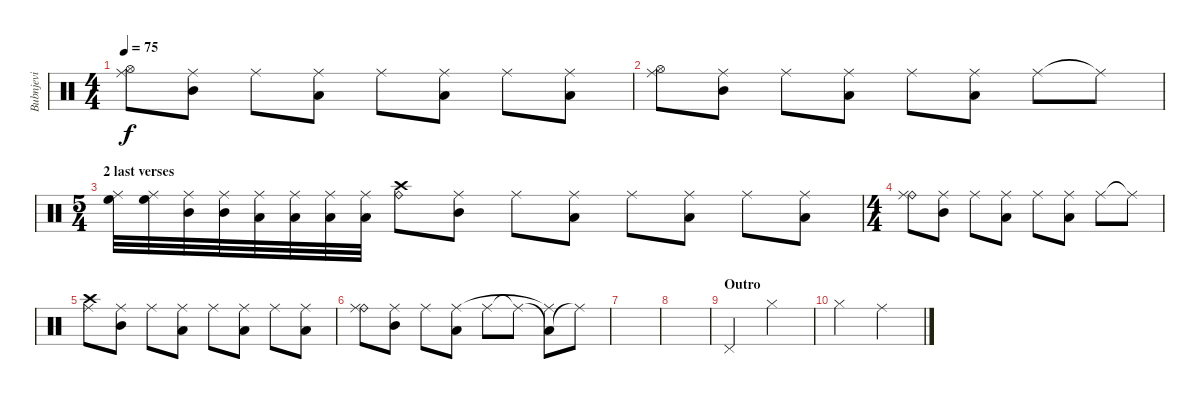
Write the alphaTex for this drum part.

\track ("Bubnjevi" "Bubnjevi") {instrument percussion}
\staff {score}
\articulation defaults
\ts (4 4)
\tempo 75
\clef neutral
\ks c
("Hi-Hat (open)" "Ride (middle)").8{dy f} ("Mid Tom (hit)" "Ride (middle)").8 "Ride (middle)".8 ("Low Tom (hit)" "Ride (middle)").8 "Ride (middle)".8 ("Low Tom (hit)" "Ride (middle)").8 "Ride (middle)".8 ("Low Tom (hit)" "Ride (middle)").8 |
("Hi-Hat (open)" "Ride (middle)").8 ("Mid Tom (hit)" "Ride (middle)").8 "Ride (middle)".8 ("Low Tom (hit)" "Ride (middle)").8 "Ride (middle)".8 ("Low Tom (hit)" "Ride (middle)").8 "Ride (middle)".8 "Ride (middle)"{t}.8 |
\ts (5 4)
\section ("" "2 last verses")
("High Floor Tom (hit)" "Ride (middle)").32 ("High Floor Tom (hit)" "Ride (middle)").32 ("Mid Tom (hit)" "Ride (middle)").32 ("Mid Tom (hit)" "Ride (middle)").32 ("Low Tom (hit)" "Ride (middle)").32 ("Low Tom (hit)" "Ride (middle)").32 ("Low Floor Tom (hit)" "Ride (middle)").32 ("Low Floor Tom (hit)" "Ride (middle)").32 ("Crash high (hit)" "Ride (bell)").8 ("Mid Tom (hit)" "Ride (middle)").8 "Ride (middle)".8 ("Low Tom (hit)" "Ride (middle)").8 "Ride (middle)".8 ("Low Tom (hit)" "Ride (middle)").8 "Ride (middle)".8 ("Low Tom (hit)" "Ride (middle)").8 |
\ts (4 4)
("Ride (bell)" "Ride (middle)").8 ("Mid Tom (hit)" "Ride (middle)").8 "Ride (middle)".8 ("Low Tom (hit)" "Ride (middle)").8 "Ride (middle)".8 ("Low Tom (hit)" "Ride (middle)").8 "Ride (middle)".8 "Ride (middle)"{t}.8 |
("Crash high (hit)" "Ride (middle)").8 ("Mid Tom (hit)" "Ride (middle)").8 "Ride (middle)".8 ("Low Tom (hit)" "Ride (middle)").8 "Ride (middle)".8 ("Low Tom (hit)" "Ride (middle)").8 "Ride (middle)".8 ("Low Tom (hit)" "Ride (middle)").8 |
("Ride (bell)" "Ride (middle)").8 ("Mid Tom (hit)" "Ride (middle)").8 "Ride (middle)".8 ("Low Tom (hit)" "Ride (middle)").8 "Ride (middle)".8 "Ride (middle)"{t}.8 ("Low Floor Tom (hit)"{t} "Ride (middle)"{t}).8 "Ride (middle)"{t}.8 |
|
|
\section ("" "Outro")
"Pedal Hi-Hat (hit)".2 "Hi-Hat (closed)".2 |
"Hi-Hat (closed)".2 "Ride (middle)".2
